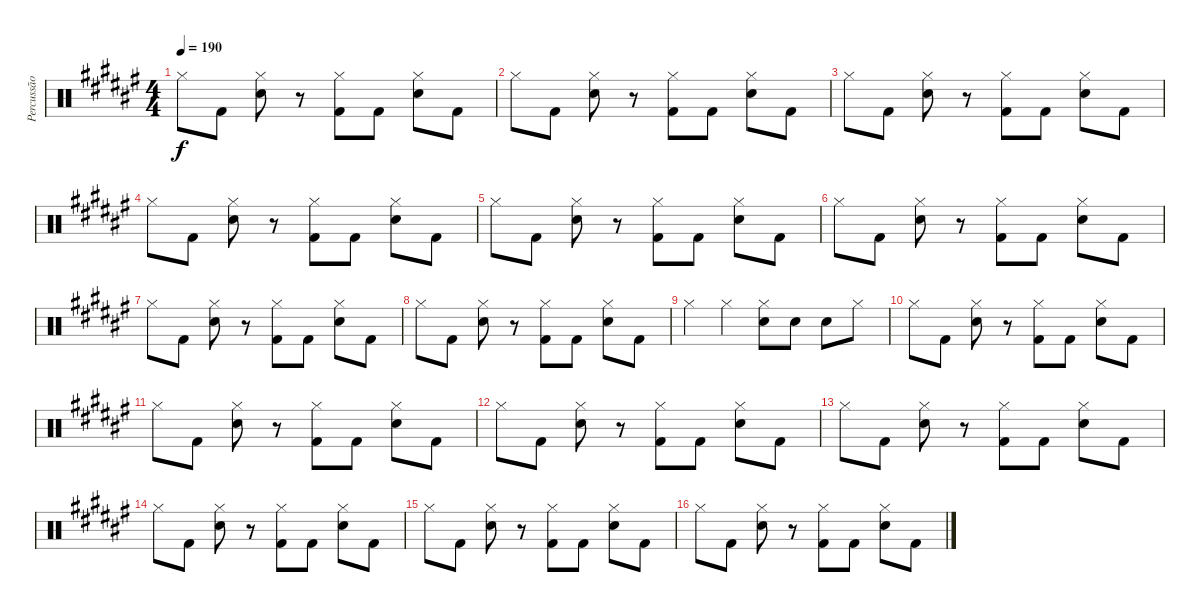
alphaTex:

\track ("Percussão" "Percussão") {instrument percussion}
\staff {score}
\articulation defaults
\ts (4 4)
\tempo 190
\clef neutral
\ks d#minor "Hi-Hat (closed)".8{dy f} "Kick (hit) 2".8
("Hi-Hat (closed)" "Snare (hit) 2").8 r.8 ("Hi-Hat (closed)" "Kick (hit) 2").8 "Kick (hit) 2".8 ("Hi-Hat (closed)" "Snare (hit) 2").8 "Kick (hit) 2".8 |
"Hi-Hat (closed)".8 "Kick (hit) 2".8 ("Hi-Hat (closed)" "Snare (hit) 2").8 r.8 ("Hi-Hat (closed)" "Kick (hit) 2").8 "Kick (hit) 2".8 ("Hi-Hat (closed)" "Snare (hit) 2").8 "Kick (hit) 2".8 |
"Hi-Hat (closed)".8 "Kick (hit) 2".8 ("Hi-Hat (closed)" "Snare (hit) 2").8 r.8 ("Hi-Hat (closed)" "Kick (hit) 2").8 "Kick (hit) 2".8 ("Hi-Hat (closed)" "Snare (hit) 2").8 "Kick (hit) 2".8 |
"Hi-Hat (closed)".8 "Kick (hit) 2".8 ("Hi-Hat (closed)" "Snare (hit) 2").8 r.8 ("Hi-Hat (closed)" "Kick (hit) 2").8 "Kick (hit) 2".8 ("Hi-Hat (closed)" "Snare (hit) 2").8 "Kick (hit) 2".8 |
"Hi-Hat (closed)".8 "Kick (hit) 2".8 ("Hi-Hat (closed)" "Snare (hit) 2").8 r.8 ("Hi-Hat (closed)" "Kick (hit) 2").8 "Kick (hit) 2".8 ("Hi-Hat (closed)" "Snare (hit) 2").8 "Kick (hit) 2".8 |
"Hi-Hat (closed)".8 "Kick (hit) 2".8 ("Hi-Hat (closed)" "Snare (hit) 2").8 r.8 ("Hi-Hat (closed)" "Kick (hit) 2").8 "Kick (hit) 2".8 ("Hi-Hat (closed)" "Snare (hit) 2").8 "Kick (hit) 2".8 |
"Hi-Hat (closed)".8 "Kick (hit) 2".8 ("Hi-Hat (closed)" "Snare (hit) 2").8 r.8 ("Hi-Hat (closed)" "Kick (hit) 2").8 "Kick (hit) 2".8 ("Hi-Hat (closed)" "Snare (hit) 2").8 "Kick (hit) 2".8 |
"Hi-Hat (closed)".8 "Kick (hit) 2".8 ("Hi-Hat (closed)" "Snare (hit) 2").8 r.8 ("Hi-Hat (closed)" "Kick (hit) 2").8 "Kick (hit) 2".8 ("Hi-Hat (closed)" "Snare (hit) 2").8 "Kick (hit) 2".8 |
"Hi-Hat (closed)".4 "Hi-Hat (closed)".4 ("Hi-Hat (closed)" "Snare (hit) 2").8 "Snare (hit) 2".8 "Snare (hit) 2".8 "Hi-Hat (closed)".8 |
"Hi-Hat (closed)".8 "Kick (hit) 2".8 ("Hi-Hat (closed)" "Snare (hit) 2").8 r.8 ("Hi-Hat (closed)" "Kick (hit) 2").8 "Kick (hit) 2".8 ("Hi-Hat (closed)" "Snare (hit) 2").8 "Kick (hit) 2".8 |
"Hi-Hat (closed)".8 "Kick (hit) 2".8 ("Hi-Hat (closed)" "Snare (hit) 2").8 r.8 ("Hi-Hat (closed)" "Kick (hit) 2").8 "Kick (hit) 2".8 ("Hi-Hat (closed)" "Snare (hit) 2").8 "Kick (hit) 2".8 |
"Hi-Hat (closed)".8 "Kick (hit) 2".8 ("Hi-Hat (closed)" "Snare (hit) 2").8 r.8 ("Hi-Hat (closed)" "Kick (hit) 2").8 "Kick (hit) 2".8 ("Hi-Hat (closed)" "Snare (hit) 2").8 "Kick (hit) 2".8 |
"Hi-Hat (closed)".8 "Kick (hit) 2".8 ("Hi-Hat (closed)" "Snare (hit) 2").8 r.8 ("Hi-Hat (closed)" "Kick (hit) 2").8 "Kick (hit) 2".8 ("Hi-Hat (closed)" "Snare (hit) 2").8 "Kick (hit) 2".8 |
"Hi-Hat (closed)".8 "Kick (hit) 2".8 ("Hi-Hat (closed)" "Snare (hit) 2").8 r.8 ("Hi-Hat (closed)" "Kick (hit) 2").8 "Kick (hit) 2".8 ("Hi-Hat (closed)" "Snare (hit) 2").8 "Kick (hit) 2".8 |
"Hi-Hat (closed)".8 "Kick (hit) 2".8 ("Hi-Hat (closed)" "Snare (hit) 2").8 r.8 ("Hi-Hat (closed)" "Kick (hit) 2").8 "Kick (hit) 2".8 ("Hi-Hat (closed)" "Snare (hit) 2").8 "Kick (hit) 2".8 |
"Hi-Hat (closed)".8 "Kick (hit) 2".8 ("Hi-Hat (closed)" "Snare (hit) 2").8 r.8 ("Hi-Hat (closed)" "Kick (hit) 2").8 "Kick (hit) 2".8 ("Hi-Hat (closed)" "Snare (hit) 2").8 "Kick (hit) 2".8
